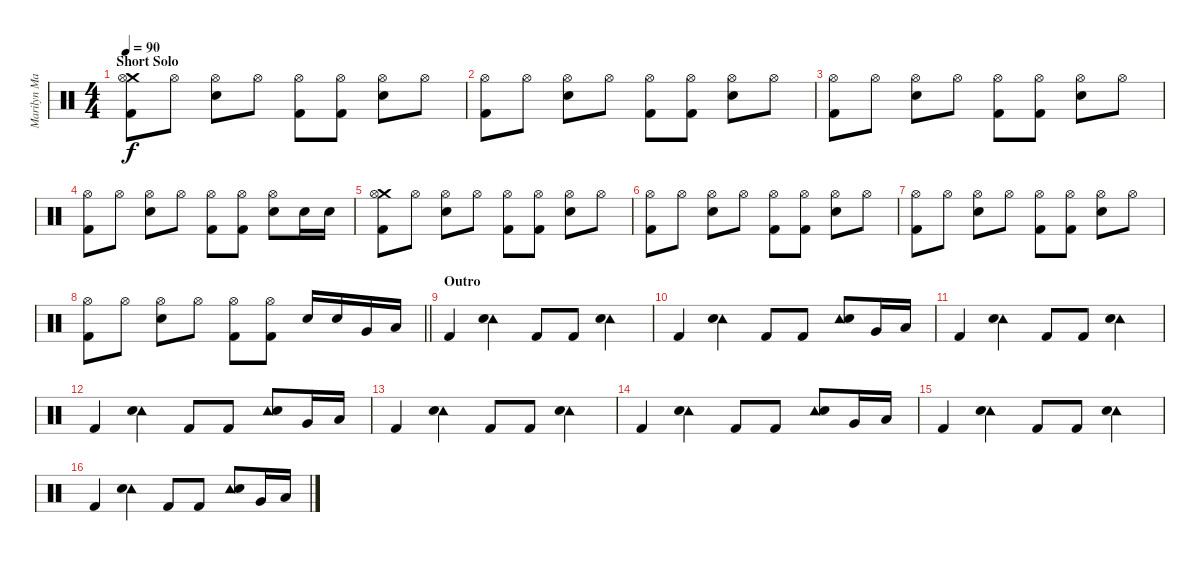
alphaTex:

\track ("Marilyn Manson" "Marilyn Ma") {instrument percussion}
\staff {score}
\articulation defaults
\ts (4 4)
\section ("" "Short Solo")
\tempo 90
\clef neutral
\ks c
("Crash medium (hit)" "Hi-Hat (open)" "Kick (hit) 2").8{dy f} "Hi-Hat (open)".8 ("Hi-Hat (open)" "Snare (hit) 2").8 "Hi-Hat (open)".8 ("Hi-Hat (open)" "Kick (hit) 2").8 ("Hi-Hat (open)" "Kick (hit) 2").8 ("Hi-Hat (open)" "Snare (hit) 2").8 "Hi-Hat (open)".8 |
("Hi-Hat (open)" "Kick (hit) 2").8 "Hi-Hat (open)".8 ("Hi-Hat (open)" "Snare (hit) 2").8 "Hi-Hat (open)".8 ("Hi-Hat (open)" "Kick (hit) 2").8 ("Hi-Hat (open)" "Kick (hit) 2").8 ("Hi-Hat (open)" "Snare (hit) 2").8 "Hi-Hat (open)".8 |
("Hi-Hat (open)" "Kick (hit) 2").8 "Hi-Hat (open)".8 ("Hi-Hat (open)" "Snare (hit) 2").8 "Hi-Hat (open)".8 ("Hi-Hat (open)" "Kick (hit) 2").8 ("Hi-Hat (open)" "Kick (hit) 2").8 ("Hi-Hat (open)" "Snare (hit) 2").8 "Hi-Hat (open)".8 |
("Hi-Hat (open)" "Kick (hit) 2").8 "Hi-Hat (open)".8 ("Hi-Hat (open)" "Snare (hit) 2").8 "Hi-Hat (open)".8 ("Hi-Hat (open)" "Kick (hit) 2").8 ("Hi-Hat (open)" "Kick (hit) 2").8 ("Hi-Hat (open)" "Snare (hit) 2").8 "Snare (hit) 2".16 "Snare (hit) 2".16 |
("Crash medium (hit)" "Hi-Hat (open)" "Kick (hit) 2").8 "Hi-Hat (open)".8 ("Hi-Hat (open)" "Snare (hit) 2").8 "Hi-Hat (open)".8 ("Hi-Hat (open)" "Kick (hit) 2").8 ("Hi-Hat (open)" "Kick (hit) 2").8 ("Hi-Hat (open)" "Snare (hit) 2").8 "Hi-Hat (open)".8 |
("Hi-Hat (open)" "Kick (hit) 2").8 "Hi-Hat (open)".8 ("Hi-Hat (open)" "Snare (hit) 2").8 "Hi-Hat (open)".8 ("Hi-Hat (open)" "Kick (hit) 2").8 ("Hi-Hat (open)" "Kick (hit) 2").8 ("Hi-Hat (open)" "Snare (hit) 2").8 "Hi-Hat (open)".8 |
("Hi-Hat (open)" "Kick (hit) 2").8 "Hi-Hat (open)".8 ("Hi-Hat (open)" "Snare (hit) 2").8 "Hi-Hat (open)".8 ("Hi-Hat (open)" "Kick (hit) 2").8 ("Hi-Hat (open)" "Kick (hit) 2").8 ("Hi-Hat (open)" "Snare (hit) 2").8 "Hi-Hat (open)".8 |
\barLineRight lightlight
("Hi-Hat (open)" "Kick (hit) 2").8 "Hi-Hat (open)".8 ("Hi-Hat (open)" "Snare (hit) 2").8 "Hi-Hat (open)".8 ("Hi-Hat (open)" "Kick (hit) 2").8 ("Hi-Hat (open)" "Kick (hit) 2").8 "Snare (hit) 2".16 "Snare (hit) 2".16 "Very Low Tom (hit)".16 "Low Floor Tom (hit)".16 |
\section ("" "Outro")
"Kick (hit) 2".4 ("Tambourine (hit)" "Snare (hit) 2").4 "Kick (hit) 2".8 "Kick (hit) 2".8 ("Tambourine (hit)" "Snare (hit) 2").4 |
"Kick (hit) 2".4 ("Tambourine (hit)" "Snare (hit) 2").4 "Kick (hit) 2".8 "Kick (hit) 2".8 ("Tambourine (hit)" "Snare (hit) 2").8 "Very Low Tom (hit)".16 "Low Floor Tom (hit)".16 |
"Kick (hit) 2".4 ("Tambourine (hit)" "Snare (hit) 2").4 "Kick (hit) 2".8 "Kick (hit) 2".8 ("Tambourine (hit)" "Snare (hit) 2").4 |
"Kick (hit) 2".4 ("Tambourine (hit)" "Snare (hit) 2").4 "Kick (hit) 2".8 "Kick (hit) 2".8 ("Tambourine (hit)" "Snare (hit) 2").8 "Very Low Tom (hit)".16 "Low Floor Tom (hit)".16 |
"Kick (hit) 2".4 ("Tambourine (hit)" "Snare (hit) 2").4 "Kick (hit) 2".8 "Kick (hit) 2".8 ("Tambourine (hit)" "Snare (hit) 2").4 |
"Kick (hit) 2".4 ("Tambourine (hit)" "Snare (hit) 2").4 "Kick (hit) 2".8 "Kick (hit) 2".8 ("Tambourine (hit)" "Snare (hit) 2").8 "Very Low Tom (hit)".16 "Low Floor Tom (hit)".16 |
"Kick (hit) 2".4 ("Tambourine (hit)" "Snare (hit) 2").4 "Kick (hit) 2".8 "Kick (hit) 2".8 ("Tambourine (hit)" "Snare (hit) 2").4 |
"Kick (hit) 2".4 ("Tambourine (hit)" "Snare (hit) 2").4 "Kick (hit) 2".8 "Kick (hit) 2".8 ("Tambourine (hit)" "Snare (hit) 2").8 "Very Low Tom (hit)".16 "Low Floor Tom (hit)".16
